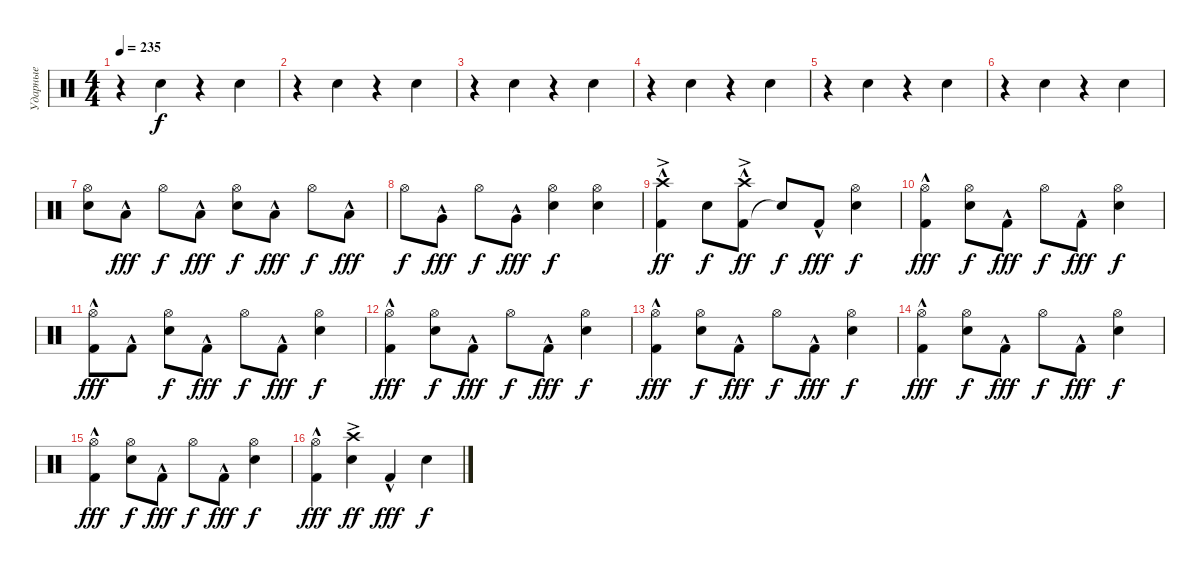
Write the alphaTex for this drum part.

\track ("Ударные" "Ударные") {instrument percussion}
\staff {score}
\articulation defaults
\ts (4 4)
\tempo 235
\clef neutral
\ks c
r.4{dy f} "Snare (hit) 2".4 r.4 "Snare (hit) 2".4 |
r.4 "Snare (hit) 2".4 r.4 "Snare (hit) 2".4 |
r.4 "Snare (hit) 2".4 r.4 "Snare (hit) 2".4 |
r.4 "Snare (hit) 2".4 r.4 "Snare (hit) 2".4 |
r.4 "Snare (hit) 2".4 r.4 "Snare (hit) 2".4 |
r.4 "Snare (hit) 2".4 r.4 "Snare (hit) 2".4 |
("Snare (hit) 2" "Hi-Hat (open)").8 "Low Tom (hit)"{hac}.8{dy fff} "Hi-Hat (open)".8{dy f} "Low Tom (hit)"{hac}.8{dy fff} ("Snare (hit) 2" "Hi-Hat (open)").8{dy f} "Low Tom (hit)"{hac}.8{dy fff} "Hi-Hat (open)".8{dy f} "Low Tom (hit)"{hac}.8{dy fff} |
"Hi-Hat (open)".8{dy f} "Very Low Tom (hit)"{hac}.8{dy fff} "Hi-Hat (open)".8{dy f} "Very Low Tom (hit)"{hac}.8{dy fff} ("Snare (hit) 2" "Hi-Hat (open)").4{dy f} ("Snare (hit) 2" "Hi-Hat (open)").4 |
("Kick (hit) 2"{hac} "Crash high (hit)"{ac}).4{dy ff} "Snare (hit) 2".8{dy f} ("Kick (hit) 2"{hac} "Crash high (hit)"{ac}).8{dy ff} "Snare (hit)"{t}.8{dy f} "Kick (hit) 2"{hac}.8{dy fff} ("Snare (hit) 2" "Hi-Hat (open)").4{dy f} |
("Kick (hit) 2"{hac} "Hi-Hat (open)").4{dy fff} ("Snare (hit) 2" "Hi-Hat (open)").8{dy f} "Kick (hit) 2"{hac}.8{dy fff} "Hi-Hat (open)".8{dy f} "Kick (hit) 2"{hac}.8{dy fff} ("Snare (hit) 2" "Hi-Hat (open)").4{dy f} |
("Kick (hit) 2"{hac} "Hi-Hat (open)").8{dy fff} "Kick (hit) 2"{hac}.8 ("Snare (hit) 2" "Hi-Hat (open)").8{dy f} "Kick (hit) 2"{hac}.8{dy fff} "Hi-Hat (open)".8{dy f} "Kick (hit) 2"{hac}.8{dy fff} ("Snare (hit) 2" "Hi-Hat (open)").4{dy f} |
("Kick (hit) 2"{hac} "Hi-Hat (open)").4{dy fff} ("Snare (hit) 2" "Hi-Hat (open)").8{dy f} "Kick (hit) 2"{hac}.8{dy fff} "Hi-Hat (open)".8{dy f} "Kick (hit) 2"{hac}.8{dy fff} ("Snare (hit) 2" "Hi-Hat (open)").4{dy f} |
("Kick (hit) 2"{hac} "Hi-Hat (open)").4{dy fff} ("Snare (hit) 2" "Hi-Hat (open)").8{dy f} "Kick (hit) 2"{hac}.8{dy fff} "Hi-Hat (open)".8{dy f} "Kick (hit) 2"{hac}.8{dy fff} ("Snare (hit) 2" "Hi-Hat (open)").4{dy f} |
("Kick (hit) 2"{hac} "Hi-Hat (open)").4{dy fff} ("Snare (hit) 2" "Hi-Hat (open)").8{dy f} "Kick (hit) 2"{hac}.8{dy fff} "Hi-Hat (open)".8{dy f} "Kick (hit) 2"{hac}.8{dy fff} ("Snare (hit) 2" "Hi-Hat (open)").4{dy f} |
("Kick (hit) 2"{hac} "Hi-Hat (open)").4{dy fff} ("Snare (hit) 2" "Hi-Hat (open)").8{dy f} "Kick (hit) 2"{hac}.8{dy fff} "Hi-Hat (open)".8{dy f} "Kick (hit) 2"{hac}.8{dy fff} ("Snare (hit) 2" "Hi-Hat (open)").4{dy f} |
("Kick (hit) 2"{hac} "Hi-Hat (open)").4{dy fff} ("Snare (hit) 2" "Crash high (hit)"{ac}).4{dy ff} "Kick (hit) 2"{hac}.4{dy fff} "Snare (hit) 2".4{dy f}
